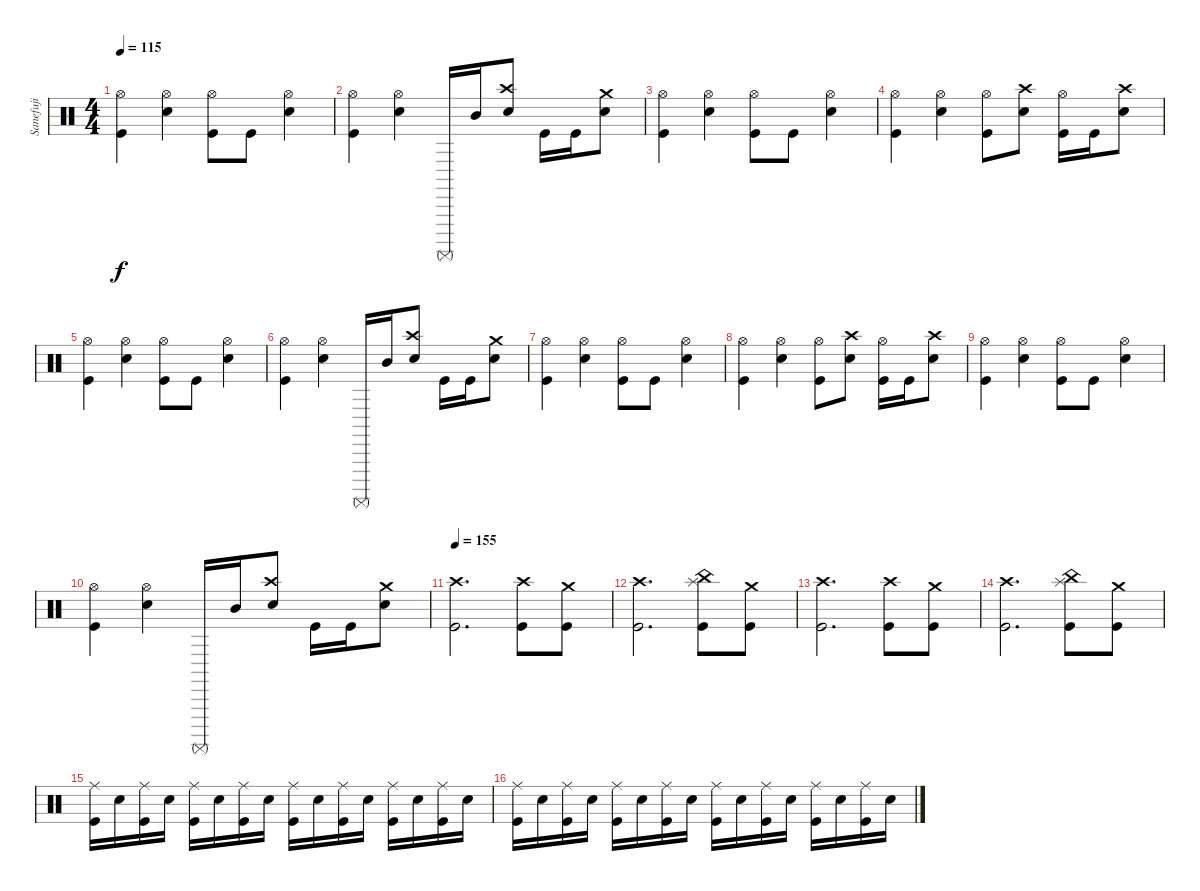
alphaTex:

\track ("Sanefuji" "Sanefuji") {instrument percussion}
\staff {score}
\articulation defaults
\ts (4 4)
\tempo 115
\clef neutral
\ks c
("Hi-Hat (open)" "Kick (hit)").4{dy f} ("Hi-Hat (open)" "Electric Snare (hit)").4 ("Hi-Hat (open)" "Kick (hit)").8 "Kick (hit)".8 ("Hi-Hat (open)" "Electric Snare (hit)").4 |
("Hi-Hat (open)" "Kick (hit)").4 ("Hi-Hat (open)" "Electric Snare (hit)").4 "Surdo (mute)".16 "Mid Tom (hit)".16 ("Crash high (hit)" "Electric Snare (hit)").8 "Kick (hit)".16 "Kick (hit)".16 ("Crash medium (hit)" "Electric Snare (hit)").8 |
("Hi-Hat (open)" "Kick (hit)").4 ("Hi-Hat (open)" "Electric Snare (hit)").4 ("Hi-Hat (open)" "Kick (hit)").8 "Kick (hit)".8 ("Hi-Hat (open)" "Electric Snare (hit)").4 |
("Hi-Hat (open)" "Kick (hit)").4 ("Hi-Hat (open)" "Electric Snare (hit)").4 ("Hi-Hat (open)" "Kick (hit)").8 ("Crash high (hit)" "Electric Snare (hit)").8 ("Hi-Hat (open)" "Kick (hit)").16 "Kick (hit)".16 ("Crash high (hit)" "Electric Snare (hit)").8 |
("Hi-Hat (open)" "Kick (hit)").4 ("Hi-Hat (open)" "Electric Snare (hit)").4 ("Hi-Hat (open)" "Kick (hit)").8 "Kick (hit)".8 ("Hi-Hat (open)" "Electric Snare (hit)").4 |
("Hi-Hat (open)" "Kick (hit)").4 ("Hi-Hat (open)" "Electric Snare (hit)").4 "Surdo (mute)".16 "Mid Tom (hit)".16 ("Crash high (hit)" "Electric Snare (hit)").8 "Kick (hit)".16 "Kick (hit)".16 ("Crash medium (hit)" "Electric Snare (hit)").8 |
("Hi-Hat (open)" "Kick (hit)").4 ("Hi-Hat (open)" "Electric Snare (hit)").4 ("Hi-Hat (open)" "Kick (hit)").8 "Kick (hit)".8 ("Hi-Hat (open)" "Electric Snare (hit)").4 |
("Hi-Hat (open)" "Kick (hit)").4 ("Hi-Hat (open)" "Electric Snare (hit)").4 ("Hi-Hat (open)" "Kick (hit)").8 ("Crash high (hit)" "Electric Snare (hit)").8 ("Hi-Hat (open)" "Kick (hit)").16 "Kick (hit)".16 ("Crash high (hit)" "Electric Snare (hit)").8 |
("Hi-Hat (open)" "Kick (hit)").4 ("Hi-Hat (open)" "Electric Snare (hit)").4 ("Hi-Hat (open)" "Kick (hit)").8 "Kick (hit)".8 ("Hi-Hat (open)" "Electric Snare (hit)").4 |
("Hi-Hat (open)" "Kick (hit)").4 ("Hi-Hat (open)" "Electric Snare (hit)").4 "Surdo (mute)".16 "Mid Tom (hit)".16 ("Crash high (hit)" "Electric Snare (hit)").8 "Kick (hit)".16 "Kick (hit)".16 ("Crash medium (hit)" "Electric Snare (hit)").8 |
\tempo 155
("Crash high (hit)" "Kick (hit)").2{d} ("Crash high (hit)" "Kick (hit)").8 ("Crash medium (hit)" "Kick (hit)").8 |
("Crash high (hit)" "Kick (hit)").2{d} ("Splash (hit)" "China (hit)" "Kick (hit)").8 ("Crash medium (hit)" "Kick (hit)").8 |
("Crash high (hit)" "Kick (hit)").2{d} ("Crash high (hit)" "Kick (hit)").8 ("Crash medium (hit)" "Kick (hit)").8 |
("Crash high (hit)" "Kick (hit)").2{d} ("Splash (hit)" "China (hit)" "Kick (hit)").8 ("Crash medium (hit)" "Kick (hit)").8 |
("Ride (middle)" "Kick (hit)").16 "Electric Snare (hit)".16 ("Ride (middle)" "Kick (hit)").16 "Electric Snare (hit)".16 ("Ride (middle)" "Kick (hit)").16 "Electric Snare (hit)".16 ("Ride (middle)" "Kick (hit)").16 "Electric Snare (hit)".16 ("Ride (middle)" "Kick (hit)").16 "Electric Snare (hit)".16 ("Ride (middle)" "Kick (hit)").16 "Electric Snare (hit)".16 ("Ride (middle)" "Kick (hit)").16 "Electric Snare (hit)".16 ("Ride (middle)" "Kick (hit)").16 "Electric Snare (hit)".16 |
("Ride (middle)" "Kick (hit)").16 "Electric Snare (hit)".16 ("Ride (middle)" "Kick (hit)").16 "Electric Snare (hit)".16 ("Ride (middle)" "Kick (hit)").16 "Electric Snare (hit)".16 ("Ride (middle)" "Kick (hit)").16 "Electric Snare (hit)".16 ("Ride (middle)" "Kick (hit)").16 "Electric Snare (hit)".16 ("Ride (middle)" "Kick (hit)").16 "Electric Snare (hit)".16 ("Ride (middle)" "Kick (hit)").16 "Electric Snare (hit)".16 ("Ride (middle)" "Kick (hit)").16 "Electric Snare (hit)".16
